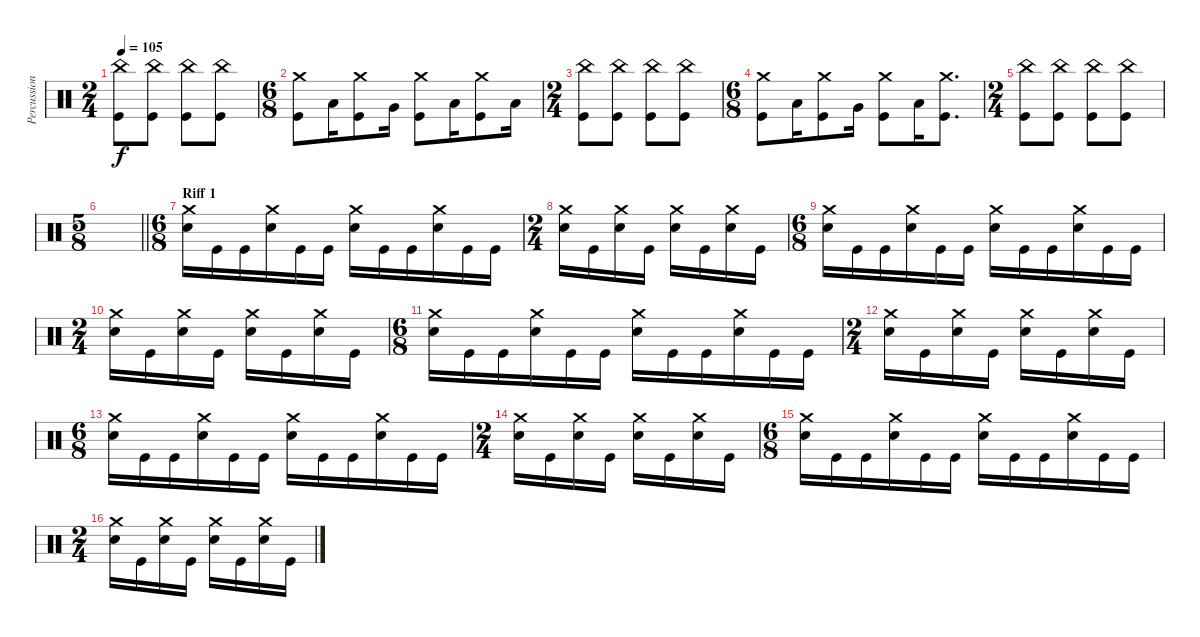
\track ("Percussion" "Percussion") {instrument percussion}
\staff {score}
\articulation defaults
\ts (2 4)
\tempo 105
\clef neutral
\ks c
("China (hit)" "Kick (hit)").8{dy f} ("China (hit)" "Kick (hit)").8 ("China (hit)" "Kick (hit)").8 ("China (hit)" "Kick (hit)").8 |
\ts (6 8)
("Crash medium (hit)" "Kick (hit)").8 "Low Floor Tom (hit)".16 ("Crash medium (hit)" "Kick (hit)").8 "Very Low Tom (hit)".16 ("Crash medium (hit)" "Kick (hit)").8 "Low Floor Tom (hit)".16 ("Crash medium (hit)" "Kick (hit)").8 "Low Floor Tom (hit)".16 |
\ts (2 4)
("China (hit)" "Kick (hit)").8 ("China (hit)" "Kick (hit)").8 ("China (hit)" "Kick (hit)").8 ("China (hit)" "Kick (hit)").8 |
\ts (6 8)
("Crash medium (hit)" "Kick (hit)").8 "Low Floor Tom (hit)".16 ("Crash medium (hit)" "Kick (hit)").8 "Very Low Tom (hit)".16 ("Crash medium (hit)" "Kick (hit)").8 "Low Floor Tom (hit)".16 ("Crash medium (hit)" "Kick (hit)").8{d} |
\ts (2 4)
("China (hit)" "Kick (hit)").8 ("China (hit)" "Kick (hit)").8 ("China (hit)" "Kick (hit)").8 ("China (hit)" "Kick (hit)").8 |
\ts (5 8)
\barLineRight lightlight
|
\ts (6 8)
\section ("" "Riff 1")
("Crash medium (hit)" "Snare (hit) 2").16 "Kick (hit)".16 "Kick (hit)".16 ("Crash medium (hit)" "Snare (hit) 2").16 "Kick (hit)".16 "Kick (hit)".16 ("Crash medium (hit)" "Snare (hit) 2").16 "Kick (hit)".16 "Kick (hit)".16 ("Crash medium (hit)" "Snare (hit) 2").16 "Kick (hit)".16 "Kick (hit)".16 |
\ts (2 4)
("Crash medium (hit)" "Snare (hit) 2").16 "Kick (hit)".16 ("Crash medium (hit)" "Snare (hit) 2").16 "Kick (hit)".16 ("Crash medium (hit)" "Snare (hit) 2").16 "Kick (hit)".16 ("Crash medium (hit)" "Snare (hit) 2").16 "Kick (hit)".16 |
\ts (6 8)
("Crash medium (hit)" "Snare (hit) 2").16 "Kick (hit)".16 "Kick (hit)".16 ("Crash medium (hit)" "Snare (hit) 2").16 "Kick (hit)".16 "Kick (hit)".16 ("Crash medium (hit)" "Snare (hit) 2").16 "Kick (hit)".16 "Kick (hit)".16 ("Crash medium (hit)" "Snare (hit) 2").16 "Kick (hit)".16 "Kick (hit)".16 |
\ts (2 4)
("Crash medium (hit)" "Snare (hit) 2").16 "Kick (hit)".16 ("Crash medium (hit)" "Snare (hit) 2").16 "Kick (hit)".16 ("Crash medium (hit)" "Snare (hit) 2").16 "Kick (hit)".16 ("Crash medium (hit)" "Snare (hit) 2").16 "Kick (hit)".16 |
\ts (6 8)
("Crash medium (hit)" "Snare (hit) 2").16 "Kick (hit)".16 "Kick (hit)".16 ("Crash medium (hit)" "Snare (hit) 2").16 "Kick (hit)".16 "Kick (hit)".16 ("Crash medium (hit)" "Snare (hit) 2").16 "Kick (hit)".16 "Kick (hit)".16 ("Crash medium (hit)" "Snare (hit) 2").16 "Kick (hit)".16 "Kick (hit)".16 |
\ts (2 4)
("Crash medium (hit)" "Snare (hit) 2").16 "Kick (hit)".16 ("Crash medium (hit)" "Snare (hit) 2").16 "Kick (hit)".16 ("Crash medium (hit)" "Snare (hit) 2").16 "Kick (hit)".16 ("Crash medium (hit)" "Snare (hit) 2").16 "Kick (hit)".16 |
\ts (6 8)
("Crash medium (hit)" "Snare (hit) 2").16 "Kick (hit)".16 "Kick (hit)".16 ("Crash medium (hit)" "Snare (hit) 2").16 "Kick (hit)".16 "Kick (hit)".16 ("Crash medium (hit)" "Snare (hit) 2").16 "Kick (hit)".16 "Kick (hit)".16 ("Crash medium (hit)" "Snare (hit) 2").16 "Kick (hit)".16 "Kick (hit)".16 |
\ts (2 4)
("Crash medium (hit)" "Snare (hit) 2").16 "Kick (hit)".16 ("Crash medium (hit)" "Snare (hit) 2").16 "Kick (hit)".16 ("Crash medium (hit)" "Snare (hit) 2").16 "Kick (hit)".16 ("Crash medium (hit)" "Snare (hit) 2").16 "Kick (hit)".16 |
\ts (6 8)
("Crash medium (hit)" "Snare (hit) 2").16 "Kick (hit)".16 "Kick (hit)".16 ("Crash medium (hit)" "Snare (hit) 2").16 "Kick (hit)".16 "Kick (hit)".16 ("Crash medium (hit)" "Snare (hit) 2").16 "Kick (hit)".16 "Kick (hit)".16 ("Crash medium (hit)" "Snare (hit) 2").16 "Kick (hit)".16 "Kick (hit)".16 |
\ts (2 4)
("Crash medium (hit)" "Snare (hit) 2").16 "Kick (hit)".16 ("Crash medium (hit)" "Snare (hit) 2").16 "Kick (hit)".16 ("Crash medium (hit)" "Snare (hit) 2").16 "Kick (hit)".16 ("Crash medium (hit)" "Snare (hit) 2").16 "Kick (hit)".16
